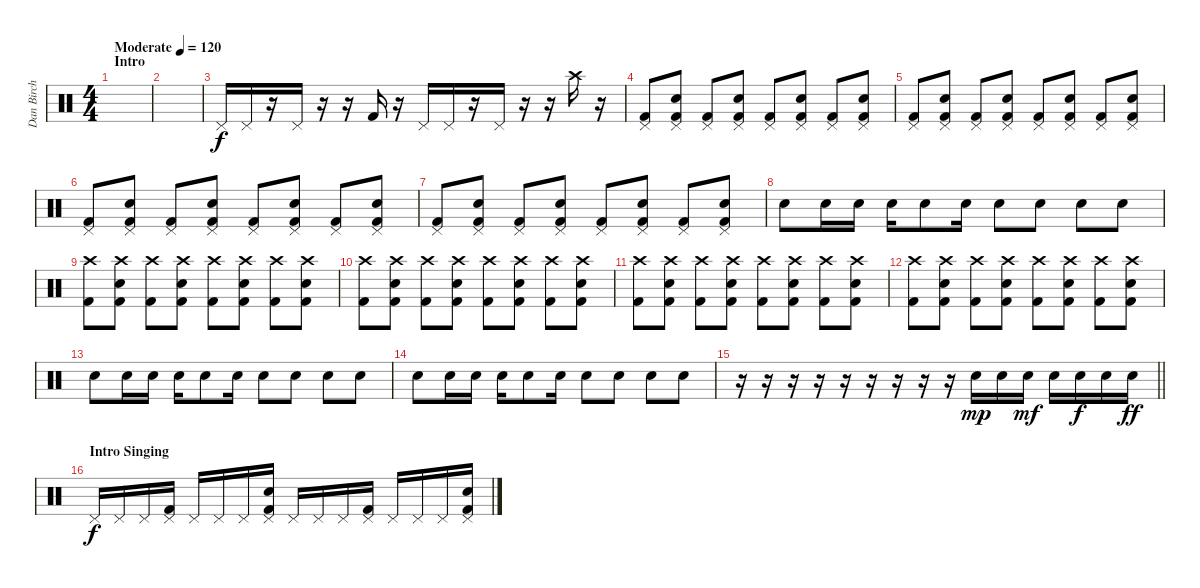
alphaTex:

\track ("Dan Birch" "Dan Birch") {instrument percussion}
\staff {score}
\articulation defaults
\ts (4 4)
\section ("" "Intro")
\tempo (120 "Moderate")
\clef neutral
\ks c
|
|
"Pedal Hi-Hat (hit)".16 "Pedal Hi-Hat (hit)".16 r.16 "Pedal Hi-Hat (hit)".16 r.16 r.16 "Kick (hit) 2".16 r.16 "Pedal Hi-Hat (hit)".16 "Pedal Hi-Hat (hit)".16 r.16 "Pedal Hi-Hat (hit)".16 r.16 r.16 "Crash high (hit)".16 r.16 |
("Pedal Hi-Hat (hit)" "Kick (hit) 2").8 ("Pedal Hi-Hat (hit)" "Snare (hit) 2" "Kick (hit) 2").8 ("Pedal Hi-Hat (hit)" "Kick (hit) 2").8 ("Pedal Hi-Hat (hit)" "Snare (hit) 2" "Kick (hit) 2").8 ("Pedal Hi-Hat (hit)" "Kick (hit) 2").8 ("Pedal Hi-Hat (hit)" "Snare (hit) 2" "Kick (hit) 2").8 ("Pedal Hi-Hat (hit)" "Kick (hit) 2").8 ("Pedal Hi-Hat (hit)" "Snare (hit) 2" "Kick (hit) 2").8 |
("Pedal Hi-Hat (hit)" "Kick (hit) 2").8 ("Pedal Hi-Hat (hit)" "Snare (hit) 2" "Kick (hit) 2").8 ("Pedal Hi-Hat (hit)" "Kick (hit) 2").8 ("Pedal Hi-Hat (hit)" "Snare (hit) 2" "Kick (hit) 2").8 ("Pedal Hi-Hat (hit)" "Kick (hit) 2").8 ("Pedal Hi-Hat (hit)" "Snare (hit) 2" "Kick (hit) 2").8 ("Pedal Hi-Hat (hit)" "Kick (hit) 2").8 ("Pedal Hi-Hat (hit)" "Snare (hit) 2" "Kick (hit) 2").8 |
("Pedal Hi-Hat (hit)" "Kick (hit) 2").8 ("Pedal Hi-Hat (hit)" "Snare (hit) 2" "Kick (hit) 2").8 ("Pedal Hi-Hat (hit)" "Kick (hit) 2").8 ("Pedal Hi-Hat (hit)" "Snare (hit) 2" "Kick (hit) 2").8 ("Pedal Hi-Hat (hit)" "Kick (hit) 2").8 ("Pedal Hi-Hat (hit)" "Snare (hit) 2" "Kick (hit) 2").8 ("Pedal Hi-Hat (hit)" "Kick (hit) 2").8 ("Pedal Hi-Hat (hit)" "Snare (hit) 2" "Kick (hit) 2").8 |
("Pedal Hi-Hat (hit)" "Kick (hit) 2").8 ("Pedal Hi-Hat (hit)" "Snare (hit) 2" "Kick (hit) 2").8 ("Pedal Hi-Hat (hit)" "Kick (hit) 2").8 ("Pedal Hi-Hat (hit)" "Snare (hit) 2" "Kick (hit) 2").8 ("Pedal Hi-Hat (hit)" "Kick (hit) 2").8 ("Pedal Hi-Hat (hit)" "Snare (hit) 2" "Kick (hit) 2").8 ("Pedal Hi-Hat (hit)" "Kick (hit) 2").8 ("Pedal Hi-Hat (hit)" "Snare (hit) 2" "Kick (hit) 2").8 |
"Snare (hit) 2".8 "Snare (hit) 2".16 "Snare (hit) 2".16 "Snare (hit) 2".16 "Snare (hit) 2".8 "Snare (hit) 2".16 "Snare (hit) 2".8 "Snare (hit) 2".8 "Snare (hit) 2".8 "Snare (hit) 2".8 |
("Crash high (hit)" "Kick (hit) 2").8 ("Crash high (hit)" "Snare (hit) 2" "Kick (hit) 2").8 ("Crash high (hit)" "Kick (hit) 2").8 ("Crash high (hit)" "Snare (hit) 2" "Kick (hit) 2").8 ("Crash high (hit)" "Kick (hit) 2").8 ("Crash high (hit)" "Snare (hit) 2" "Kick (hit) 2").8 ("Crash high (hit)" "Kick (hit) 2").8 ("Crash high (hit)" "Snare (hit) 2" "Kick (hit) 2").8 |
("Crash high (hit)" "Kick (hit) 2").8 ("Crash high (hit)" "Snare (hit) 2" "Kick (hit) 2").8 ("Crash high (hit)" "Kick (hit) 2").8 ("Crash high (hit)" "Snare (hit) 2" "Kick (hit) 2").8 ("Crash high (hit)" "Kick (hit) 2").8 ("Crash high (hit)" "Snare (hit) 2" "Kick (hit) 2").8 ("Crash high (hit)" "Kick (hit) 2").8 ("Crash high (hit)" "Snare (hit) 2" "Kick (hit) 2").8 |
("Crash high (hit)" "Kick (hit) 2").8 ("Crash high (hit)" "Snare (hit) 2" "Kick (hit) 2").8 ("Crash high (hit)" "Kick (hit) 2").8 ("Crash high (hit)" "Snare (hit) 2" "Kick (hit) 2").8 ("Crash high (hit)" "Kick (hit) 2").8 ("Crash high (hit)" "Snare (hit) 2" "Kick (hit) 2").8 ("Crash high (hit)" "Kick (hit) 2").8 ("Crash high (hit)" "Snare (hit) 2" "Kick (hit) 2").8 |
("Crash high (hit)" "Kick (hit) 2").8 ("Crash high (hit)" "Snare (hit) 2" "Kick (hit) 2").8 ("Crash high (hit)" "Kick (hit) 2").8 ("Crash high (hit)" "Snare (hit) 2" "Kick (hit) 2").8 ("Crash high (hit)" "Kick (hit) 2").8 ("Crash high (hit)" "Snare (hit) 2" "Kick (hit) 2").8 ("Crash high (hit)" "Kick (hit) 2").8 ("Crash high (hit)" "Snare (hit) 2" "Kick (hit) 2").8 |
"Snare (hit) 2".8 "Snare (hit) 2".16 "Snare (hit) 2".16 "Snare (hit) 2".16 "Snare (hit) 2".8 "Snare (hit) 2".16 "Snare (hit) 2".8 "Snare (hit) 2".8 "Snare (hit) 2".8 "Snare (hit) 2".8 |
"Snare (hit) 2".8 "Snare (hit) 2".16 "Snare (hit) 2".16 "Snare (hit) 2".16 "Snare (hit) 2".8 "Snare (hit) 2".16 "Snare (hit) 2".8 "Snare (hit) 2".8 "Snare (hit) 2".8 "Snare (hit) 2".8 |
\barLineRight lightlight
r.16 r.16 r.16 r.16 r.16 r.16 r.16 r.16 r.16 "Snare (hit) 2".16{dy mp} "Snare (hit) 2".16 "Snare (hit) 2".16{dy mf} "Snare (hit) 2".16 "Snare (hit) 2".16{dy f} "Snare (hit) 2".16 "Snare (hit) 2".16{dy ff} |
\section ("" "Intro Singing")
"Pedal Hi-Hat (hit)".16{dy f} "Pedal Hi-Hat (hit)".16 "Pedal Hi-Hat (hit)".16 ("Pedal Hi-Hat (hit)" "Kick (hit) 2").16 "Pedal Hi-Hat (hit)".16 "Pedal Hi-Hat (hit)".16 "Pedal Hi-Hat (hit)".16 ("Pedal Hi-Hat (hit)" "Snare (hit) 2" "Kick (hit) 2").16 "Pedal Hi-Hat (hit)".16 "Pedal Hi-Hat (hit)".16 "Pedal Hi-Hat (hit)".16 ("Pedal Hi-Hat (hit)" "Kick (hit) 2").16 "Pedal Hi-Hat (hit)".16 "Pedal Hi-Hat (hit)".16 "Pedal Hi-Hat (hit)".16 ("Pedal Hi-Hat (hit)" "Snare (hit) 2" "Kick (hit) 2").16
